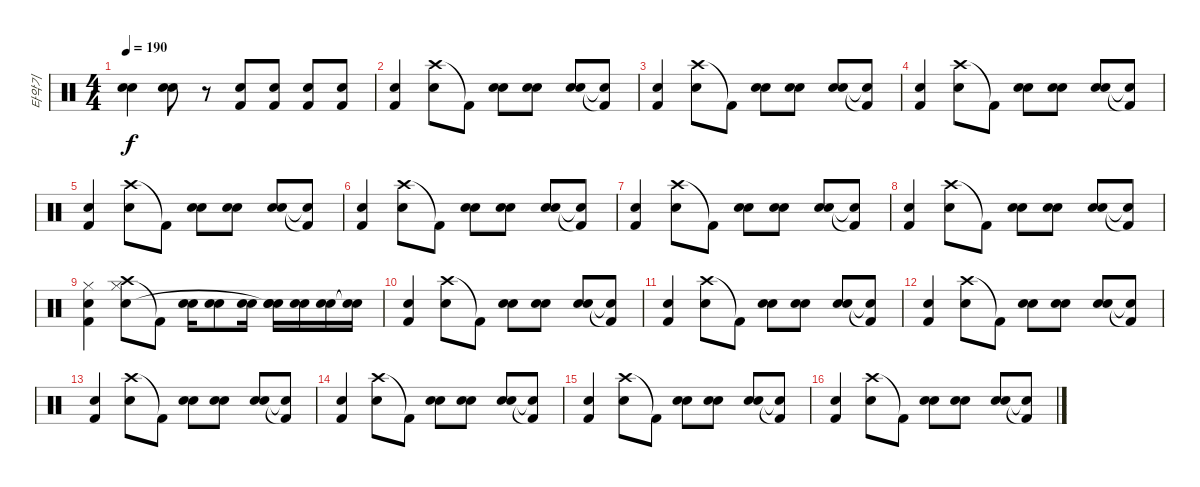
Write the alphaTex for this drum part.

\track ("타악기" "타악기") {instrument percussion}
\staff {score}
\articulation defaults
\ts (4 4)
\tempo 190
\clef neutral
\ks c
("Electric Snare (hit)" "Snare (hit) 2").4{dy f} ("Electric Snare (hit)" "Snare (hit) 2").8 r.8 ("Electric Snare (hit)" "Kick (hit) 2").8 ("Electric Snare (hit)" "Kick (hit) 2").8 ("Electric Snare (hit)" "Kick (hit) 2").8 ("Electric Snare (hit)" "Kick (hit) 2").8 |
("Kick (hit) 2" "Snare (hit) 2").4{volume 8} ("Crash high (hit)" "Snare (hit) 2").8 "Kick (hit) 2"{t}.8 ("Snare (hit) 2" "Electric Snare (hit)").8 ("Snare (hit) 2" "Snare (hit) 2").8 ("Electric Snare (hit)" "Snare (hit) 2").8 ("Kick (hit) 2"{t} "Snare (hit)"{t}).8 |
("Kick (hit) 2" "Snare (hit) 2").4 ("Crash high (hit)" "Snare (hit) 2").8 "Kick (hit) 2"{t}.8 ("Snare (hit) 2" "Electric Snare (hit)").8 ("Snare (hit) 2" "Snare (hit) 2").8 ("Electric Snare (hit)" "Snare (hit) 2").8 ("Kick (hit) 2"{t} "Snare (hit)"{t}).8 |
("Kick (hit) 2" "Snare (hit) 2").4 ("Crash high (hit)" "Snare (hit) 2").8 "Kick (hit) 2"{t}.8 ("Snare (hit) 2" "Electric Snare (hit)").8 ("Snare (hit) 2" "Snare (hit) 2").8 ("Electric Snare (hit)" "Snare (hit) 2").8 ("Kick (hit) 2"{t} "Snare (hit)"{t}).8 |
("Kick (hit) 2" "Snare (hit) 2").4 ("Crash high (hit)" "Snare (hit) 2").8 "Kick (hit) 2"{t}.8 ("Snare (hit) 2" "Electric Snare (hit)").8 ("Snare (hit) 2" "Snare (hit) 2").8 ("Electric Snare (hit)" "Snare (hit) 2").8 ("Kick (hit) 2"{t} "Snare (hit)"{t}).8 |
("Kick (hit) 2" "Snare (hit) 2").4 ("Crash high (hit)" "Snare (hit) 2").8 "Kick (hit) 2"{t}.8 ("Snare (hit) 2" "Electric Snare (hit)").8 ("Snare (hit) 2" "Snare (hit) 2").8 ("Electric Snare (hit)" "Snare (hit) 2").8 ("Kick (hit) 2"{t} "Snare (hit)"{t}).8 |
("Kick (hit) 2" "Snare (hit) 2").4 ("Crash high (hit)" "Snare (hit) 2").8 "Kick (hit) 2"{t}.8 ("Snare (hit) 2" "Electric Snare (hit)").8 ("Snare (hit) 2" "Snare (hit) 2").8 ("Electric Snare (hit)" "Snare (hit) 2").8 ("Kick (hit) 2"{t} "Snare (hit)"{t}).8 |
("Kick (hit) 2" "Snare (hit) 2").4 ("Crash high (hit)" "Snare (hit) 2").8 "Kick (hit) 2"{t}.8 ("Snare (hit) 2" "Electric Snare (hit)").8 ("Snare (hit) 2" "Snare (hit) 2").8 ("Electric Snare (hit)" "Snare (hit) 2").8 ("Kick (hit) 2"{t} "Snare (hit)"{t}).8 |
("Hi-Hat (closed)" "Kick (hit) 2" "Snare (hit) 2").4 ("Hi-Hat (closed)" "Crash high (hit)" "Snare (hit) 2").8 "Kick (hit) 2"{t}.8 ("Snare (hit) 2" "Electric Snare (hit)").16 ("Snare (hit) 2" "Snare (hit) 2").8 ("Snare (hit) 2" "Electric Snare (hit)").16 ("Snare (hit) 2" "Electric Snare (hit)" "Snare (hit)"{t}).16 ("Snare (hit) 2" "Electric Snare (hit)").16 ("Snare (hit) 2" "Electric Snare (hit)").16 ("Snare (hit)"{t} "Snare (hit)"{t}).16 |
("Kick (hit) 2" "Snare (hit) 2").4 ("Crash high (hit)" "Snare (hit) 2").8 "Kick (hit) 2"{t}.8 ("Snare (hit) 2" "Electric Snare (hit)").8 ("Snare (hit) 2" "Snare (hit) 2").8 ("Electric Snare (hit)" "Snare (hit) 2").8 ("Kick (hit) 2"{t} "Snare (hit)"{t}).8 |
("Kick (hit) 2" "Snare (hit) 2").4 ("Crash high (hit)" "Snare (hit) 2").8 "Kick (hit) 2"{t}.8 ("Snare (hit) 2" "Electric Snare (hit)").8 ("Snare (hit) 2" "Snare (hit) 2").8 ("Electric Snare (hit)" "Snare (hit) 2").8 ("Kick (hit) 2"{t} "Snare (hit)"{t}).8 |
("Kick (hit) 2" "Snare (hit) 2").4 ("Crash high (hit)" "Snare (hit) 2").8 "Kick (hit) 2"{t}.8 ("Snare (hit) 2" "Electric Snare (hit)").8 ("Snare (hit) 2" "Snare (hit) 2").8 ("Electric Snare (hit)" "Snare (hit) 2").8 ("Kick (hit) 2"{t} "Snare (hit)"{t}).8 |
("Kick (hit) 2" "Snare (hit) 2").4 ("Crash high (hit)" "Snare (hit) 2").8 "Kick (hit) 2"{t}.8 ("Snare (hit) 2" "Electric Snare (hit)").8 ("Snare (hit) 2" "Snare (hit) 2").8 ("Electric Snare (hit)" "Snare (hit) 2").8 ("Kick (hit) 2"{t} "Snare (hit)"{t}).8 |
("Kick (hit) 2" "Snare (hit) 2").4 ("Crash high (hit)" "Snare (hit) 2").8 "Kick (hit) 2"{t}.8 ("Snare (hit) 2" "Electric Snare (hit)").8 ("Snare (hit) 2" "Snare (hit) 2").8 ("Electric Snare (hit)" "Snare (hit) 2").8 ("Kick (hit) 2"{t} "Snare (hit)"{t}).8 |
("Kick (hit) 2" "Snare (hit) 2").4 ("Crash high (hit)" "Snare (hit) 2").8 "Kick (hit) 2"{t}.8 ("Snare (hit) 2" "Electric Snare (hit)").8 ("Snare (hit) 2" "Snare (hit) 2").8 ("Electric Snare (hit)" "Snare (hit) 2").8 ("Kick (hit) 2"{t} "Snare (hit)"{t}).8 |
("Kick (hit) 2" "Snare (hit) 2").4 ("Crash high (hit)" "Snare (hit) 2").8 "Kick (hit) 2"{t}.8 ("Snare (hit) 2" "Electric Snare (hit)").8 ("Snare (hit) 2" "Snare (hit) 2").8 ("Electric Snare (hit)" "Snare (hit) 2").8 ("Kick (hit) 2"{t} "Snare (hit)"{t}).8
